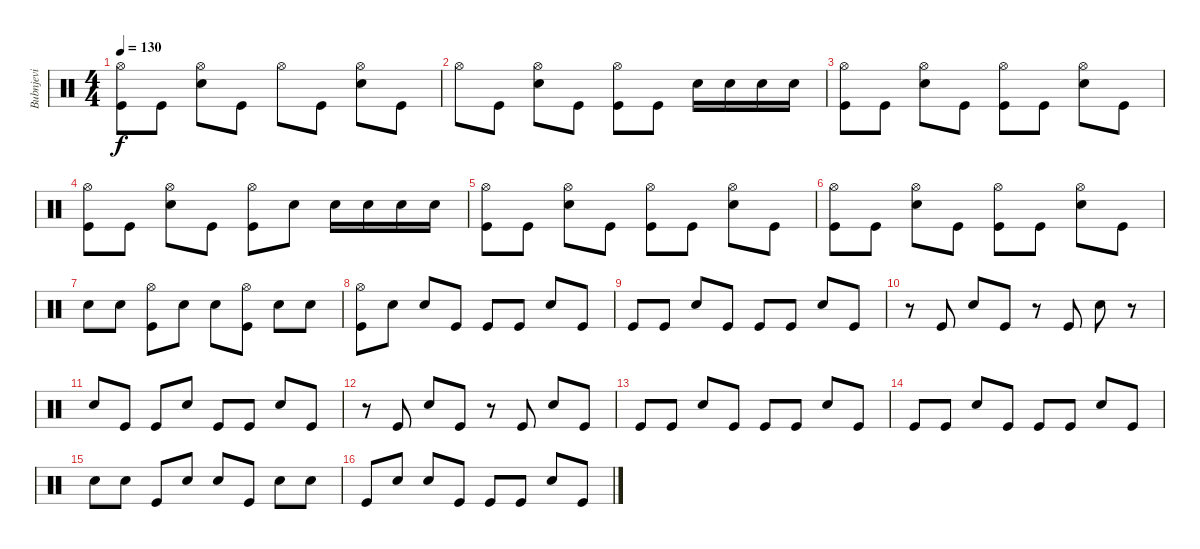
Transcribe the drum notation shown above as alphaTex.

\track ("Bubnjevi" "Bubnjevi") {instrument percussion}
\staff {score}
\articulation defaults
\ts (4 4)
\tempo 130
\clef neutral
\ks c
("Hi-Hat (open)" "Kick (hit)").8{dy f} "Kick (hit)".8 ("Hi-Hat (open)" "Snare (hit) 2").8 "Kick (hit)".8 "Hi-Hat (open)".8 "Kick (hit)".8 ("Hi-Hat (open)" "Snare (hit) 2").8 "Kick (hit)".8 |
"Hi-Hat (open)".8 "Kick (hit)".8 ("Hi-Hat (open)" "Snare (hit) 2").8 "Kick (hit)".8 ("Hi-Hat (open)" "Kick (hit)").8 "Kick (hit)".8 "Snare (hit) 2".16 "Snare (hit) 2".16 "Snare (hit) 2".16 "Snare (hit) 2".16 |
("Hi-Hat (open)" "Kick (hit)").8 "Kick (hit)".8 ("Hi-Hat (open)" "Snare (hit) 2").8 "Kick (hit)".8 ("Hi-Hat (open)" "Kick (hit)").8 "Kick (hit)".8 ("Hi-Hat (open)" "Snare (hit) 2").8 "Kick (hit)".8 |
("Hi-Hat (open)" "Kick (hit)").8 "Kick (hit)".8 ("Hi-Hat (open)" "Snare (hit) 2").8 "Kick (hit)".8 ("Hi-Hat (open)" "Kick (hit)").8 "Snare (hit) 2".8 "Snare (hit) 2".16 "Snare (hit) 2".16 "Snare (hit) 2".16 "Snare (hit) 2".16 |
("Hi-Hat (open)" "Kick (hit)").8 "Kick (hit)".8 ("Hi-Hat (open)" "Snare (hit) 2").8 "Kick (hit)".8 ("Hi-Hat (open)" "Kick (hit)").8 "Kick (hit)".8 ("Hi-Hat (open)" "Snare (hit) 2").8 "Kick (hit)".8 |
("Hi-Hat (open)" "Kick (hit)").8 "Kick (hit)".8 ("Hi-Hat (open)" "Snare (hit) 2").8 "Kick (hit)".8 ("Hi-Hat (open)" "Kick (hit)").8 "Kick (hit)".8 ("Hi-Hat (open)" "Snare (hit) 2").8 "Kick (hit)".8 |
"Snare (hit) 2".8 "Snare (hit) 2".8 ("Hi-Hat (open)" "Kick (hit)").8 "Snare (hit) 2".8 "Snare (hit) 2".8 ("Hi-Hat (open)" "Kick (hit)").8 "Snare (hit) 2".8 "Snare (hit) 2".8 |
("Hi-Hat (open)" "Kick (hit)").8 "Snare (hit) 2".8 "Snare (hit) 2".8 "Kick (hit)".8 "Kick (hit)".8 "Kick (hit)".8 "Snare (hit) 2".8 "Kick (hit)".8 |
"Kick (hit)".8 "Kick (hit)".8 "Snare (hit) 2".8 "Kick (hit)".8 "Kick (hit)".8 "Kick (hit)".8 "Snare (hit) 2".8 "Kick (hit)".8 |
r.8 "Kick (hit)".8 "Snare (hit) 2".8 "Kick (hit)".8 r.8 "Kick (hit)".8 "Snare (hit) 2".8 r.8 |
"Snare (hit) 2".8 "Kick (hit)".8 "Kick (hit)".8 "Snare (hit) 2".8 "Kick (hit)".8 "Kick (hit)".8 "Snare (hit) 2".8 "Kick (hit)".8 |
r.8 "Kick (hit)".8 "Snare (hit) 2".8 "Kick (hit)".8 r.8 "Kick (hit)".8 "Snare (hit) 2".8 "Kick (hit)".8 |
"Kick (hit)".8 "Kick (hit)".8 "Snare (hit) 2".8 "Kick (hit)".8 "Kick (hit)".8 "Kick (hit)".8 "Snare (hit) 2".8 "Kick (hit)".8 |
"Kick (hit)".8 "Kick (hit)".8 "Snare (hit) 2".8 "Kick (hit)".8 "Kick (hit)".8 "Kick (hit)".8 "Snare (hit) 2".8 "Kick (hit)".8 |
"Snare (hit) 2".8 "Snare (hit) 2".8 "Kick (hit)".8 "Snare (hit) 2".8 "Snare (hit) 2".8 "Kick (hit)".8 "Snare (hit) 2".8 "Snare (hit) 2".8 |
"Kick (hit)".8 "Snare (hit) 2".8 "Snare (hit) 2".8 "Kick (hit)".8 "Kick (hit)".8 "Kick (hit)".8 "Snare (hit) 2".8 "Kick (hit)".8
